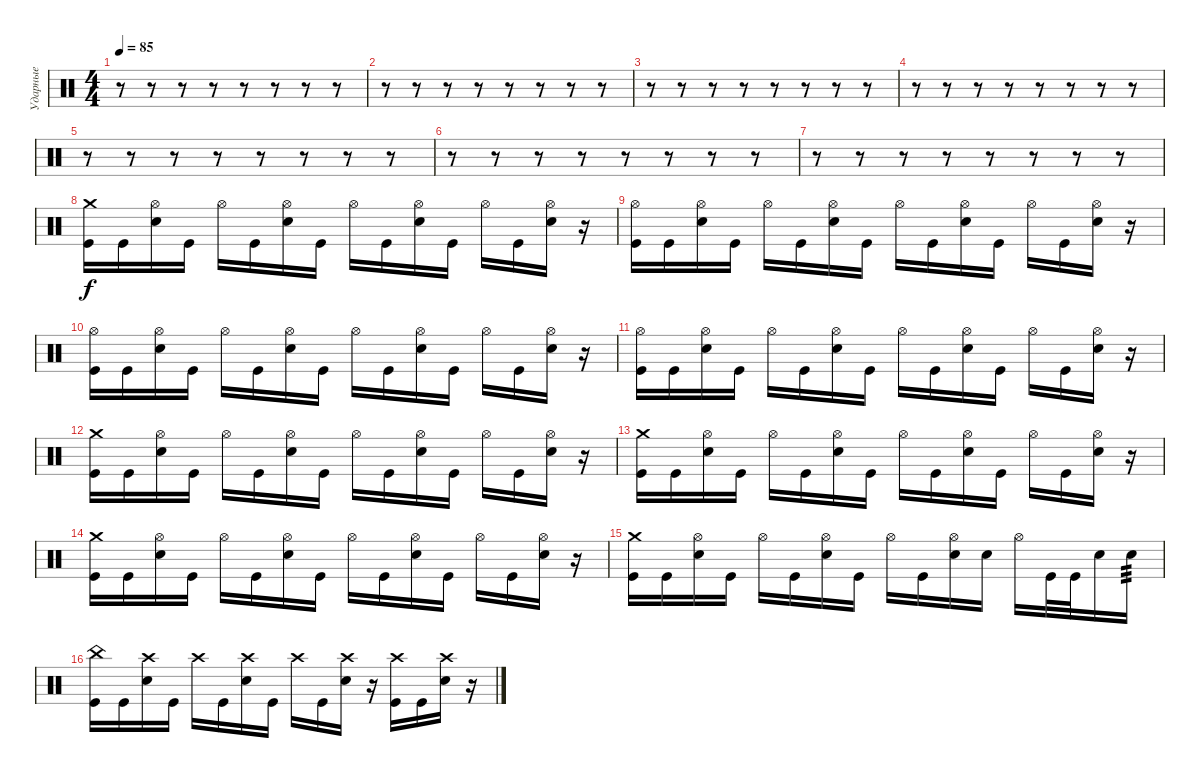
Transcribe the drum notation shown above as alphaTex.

\track ("Ударные" "Ударные") {instrument percussion}
\staff {score}
\articulation defaults
\ts (4 4)
\tempo 85
\clef neutral
\ks c
r.8{dy f} r.8 r.8 r.8 r.8 r.8 r.8 r.8 |
r.8 r.8 r.8 r.8 r.8 r.8 r.8 r.8 |
r.8 r.8 r.8 r.8 r.8 r.8 r.8 r.8 |
r.8 r.8 r.8 r.8 r.8 r.8 r.8 r.8 |
r.8 r.8 r.8 r.8 r.8 r.8 r.8 r.8 |
r.8 r.8 r.8 r.8 r.8 r.8 r.8 r.8 |
r.8 r.8 r.8 r.8 r.8 r.8 r.8 r.8 |
("Crash medium (hit)" "Kick (hit)").16 "Kick (hit)".16 ("Hi-Hat (open)" "Electric Snare (hit)").16 "Kick (hit)".16 "Hi-Hat (open)".16 "Kick (hit)".16 ("Hi-Hat (open)" "Electric Snare (hit)").16 "Kick (hit)".16 "Hi-Hat (open)".16 "Kick (hit)".16 ("Hi-Hat (open)" "Electric Snare (hit)").16 "Kick (hit)".16 "Hi-Hat (open)".16 "Kick (hit)".16 ("Hi-Hat (open)" "Electric Snare (hit)").16 r.16 |
("Hi-Hat (open)" "Kick (hit)").16 "Kick (hit)".16 ("Hi-Hat (open)" "Electric Snare (hit)").16 "Kick (hit)".16 "Hi-Hat (open)".16 "Kick (hit)".16 ("Hi-Hat (open)" "Electric Snare (hit)").16 "Kick (hit)".16 "Hi-Hat (open)".16 "Kick (hit)".16 ("Hi-Hat (open)" "Electric Snare (hit)").16 "Kick (hit)".16 "Hi-Hat (open)".16 "Kick (hit)".16 ("Hi-Hat (open)" "Electric Snare (hit)").16 r.16 |
("Hi-Hat (open)" "Kick (hit)").16 "Kick (hit)".16 ("Hi-Hat (open)" "Electric Snare (hit)").16 "Kick (hit)".16 "Hi-Hat (open)".16 "Kick (hit)".16 ("Hi-Hat (open)" "Electric Snare (hit)").16 "Kick (hit)".16 "Hi-Hat (open)".16 "Kick (hit)".16 ("Hi-Hat (open)" "Electric Snare (hit)").16 "Kick (hit)".16 "Hi-Hat (open)".16 "Kick (hit)".16 ("Hi-Hat (open)" "Electric Snare (hit)").16 r.16 |
("Hi-Hat (open)" "Kick (hit)").16 "Kick (hit)".16 ("Hi-Hat (open)" "Electric Snare (hit)").16 "Kick (hit)".16 "Hi-Hat (open)".16 "Kick (hit)".16 ("Hi-Hat (open)" "Electric Snare (hit)").16 "Kick (hit)".16 "Hi-Hat (open)".16 "Kick (hit)".16 ("Hi-Hat (open)" "Electric Snare (hit)").16 "Kick (hit)".16 "Hi-Hat (open)".16 "Kick (hit)".16 ("Hi-Hat (open)" "Electric Snare (hit)").16 r.16 |
("Crash medium (hit)" "Kick (hit)").16 "Kick (hit)".16 ("Hi-Hat (open)" "Electric Snare (hit)").16 "Kick (hit)".16 "Hi-Hat (open)".16 "Kick (hit)".16 ("Hi-Hat (open)" "Electric Snare (hit)").16 "Kick (hit)".16 "Hi-Hat (open)".16 "Kick (hit)".16 ("Hi-Hat (open)" "Electric Snare (hit)").16 "Kick (hit)".16 "Hi-Hat (open)".16 "Kick (hit)".16 ("Hi-Hat (open)" "Electric Snare (hit)").16 r.16 |
("Crash medium (hit)" "Kick (hit)").16 "Kick (hit)".16 ("Hi-Hat (open)" "Electric Snare (hit)").16 "Kick (hit)".16 "Hi-Hat (open)".16 "Kick (hit)".16 ("Hi-Hat (open)" "Electric Snare (hit)").16 "Kick (hit)".16 "Hi-Hat (open)".16 "Kick (hit)".16 ("Hi-Hat (open)" "Electric Snare (hit)").16 "Kick (hit)".16 "Hi-Hat (open)".16 "Kick (hit)".16 ("Hi-Hat (open)" "Electric Snare (hit)").16 r.16 |
("Crash medium (hit)" "Kick (hit)").16 "Kick (hit)".16 ("Hi-Hat (open)" "Electric Snare (hit)").16 "Kick (hit)".16 "Hi-Hat (open)".16 "Kick (hit)".16 ("Hi-Hat (open)" "Electric Snare (hit)").16 "Kick (hit)".16 "Hi-Hat (open)".16 "Kick (hit)".16 ("Hi-Hat (open)" "Electric Snare (hit)").16 "Kick (hit)".16 "Hi-Hat (open)".16 "Kick (hit)".16 ("Hi-Hat (open)" "Electric Snare (hit)").16 r.16 |
("Crash medium (hit)" "Kick (hit)").16 "Kick (hit)".16 ("Hi-Hat (open)" "Electric Snare (hit)").16 "Kick (hit)".16 "Hi-Hat (open)".16 "Kick (hit)".16 ("Hi-Hat (open)" "Electric Snare (hit)").16 "Kick (hit)".16 "Hi-Hat (open)".16 "Kick (hit)".16 ("Hi-Hat (open)" "Electric Snare (hit)").16 "Electric Snare (hit)".16 "Hi-Hat (open)".16 "Kick (hit)".32 "Kick (hit)".32 "Electric Snare (hit)".16 "Electric Snare (hit)".16{tp 3} |
("China (hit)" "Kick (hit)").16 "Kick (hit)".16 ("Crash high (hit)" "Electric Snare (hit)").16 "Kick (hit)".16 "Crash high (hit)".16 "Kick (hit)".16 ("Crash high (hit)" "Electric Snare (hit)").16 "Kick (hit)".16 "Crash high (hit)".16 "Kick (hit)".16 ("Crash high (hit)" "Electric Snare (hit)").16 r.16 ("Crash high (hit)" "Kick (hit)").16 "Kick (hit)".16 ("Crash high (hit)" "Electric Snare (hit)").16 r.16
